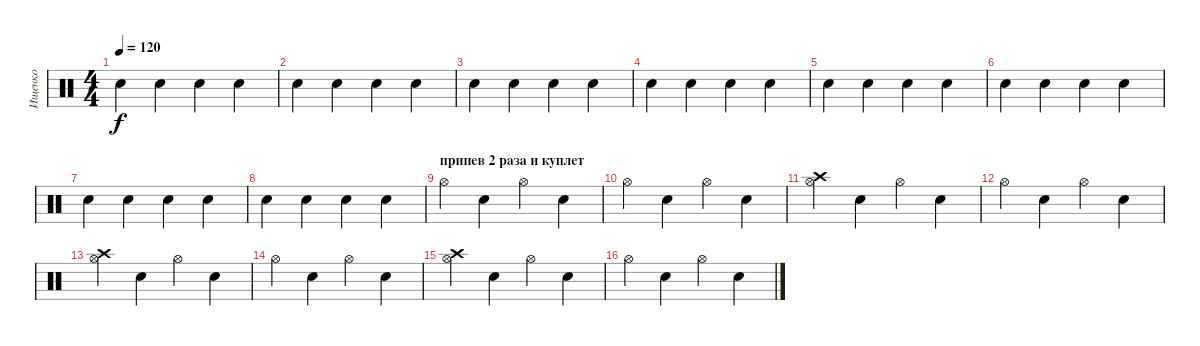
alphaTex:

\track ("Ищенко" "Ищенко") {instrument percussion}
\staff {score}
\articulation defaults
\ts (4 4)
\tempo 120
\clef neutral
\ks c "Snare (hit) 2".4{dy f} "Electric Snare (hit)".4 "Snare (hit) 2".4 "Electric Snare (hit)".4
|
"Snare (hit) 2".4 "Electric Snare (hit)".4 "Snare (hit) 2".4 "Electric Snare (hit)".4 |
"Snare (hit) 2".4 "Electric Snare (hit)".4 "Snare (hit) 2".4 "Electric Snare (hit)".4 |
"Snare (hit) 2".4 "Electric Snare (hit)".4 "Snare (hit) 2".4 "Electric Snare (hit)".4 |
"Snare (hit) 2".4 "Electric Snare (hit)".4 "Snare (hit) 2".4 "Electric Snare (hit)".4 |
"Snare (hit) 2".4 "Electric Snare (hit)".4 "Snare (hit) 2".4 "Electric Snare (hit)".4 |
"Snare (hit) 2".4 "Electric Snare (hit)".4 "Snare (hit) 2".4 "Electric Snare (hit)".4 |
"Snare (hit) 2".4 "Electric Snare (hit)".4 "Snare (hit) 2".4 "Electric Snare (hit)".4 |
\section ("" "припев 2 раза и куплет ")
"Hi-Hat (open)".4 "Electric Snare (hit)".4 "Hi-Hat (open)".4 "Electric Snare (hit)".4 |
"Hi-Hat (open)".4 "Electric Snare (hit)".4 "Hi-Hat (open)".4 "Electric Snare (hit)".4 |
("Hi-Hat (open)" "Crash high (hit)").4 "Electric Snare (hit)".4 "Hi-Hat (open)".4 "Electric Snare (hit)".4 |
"Hi-Hat (open)".4 "Electric Snare (hit)".4 "Hi-Hat (open)".4 "Electric Snare (hit)".4 |
("Hi-Hat (open)" "Crash high (hit)").4 "Electric Snare (hit)".4 "Hi-Hat (open)".4 "Electric Snare (hit)".4 |
"Hi-Hat (open)".4 "Electric Snare (hit)".4 "Hi-Hat (open)".4 "Electric Snare (hit)".4 |
("Hi-Hat (open)" "Crash high (hit)").4 "Electric Snare (hit)".4 "Hi-Hat (open)".4 "Electric Snare (hit)".4 |
"Hi-Hat (open)".4 "Electric Snare (hit)".4 "Hi-Hat (open)".4 "Electric Snare (hit)".4
